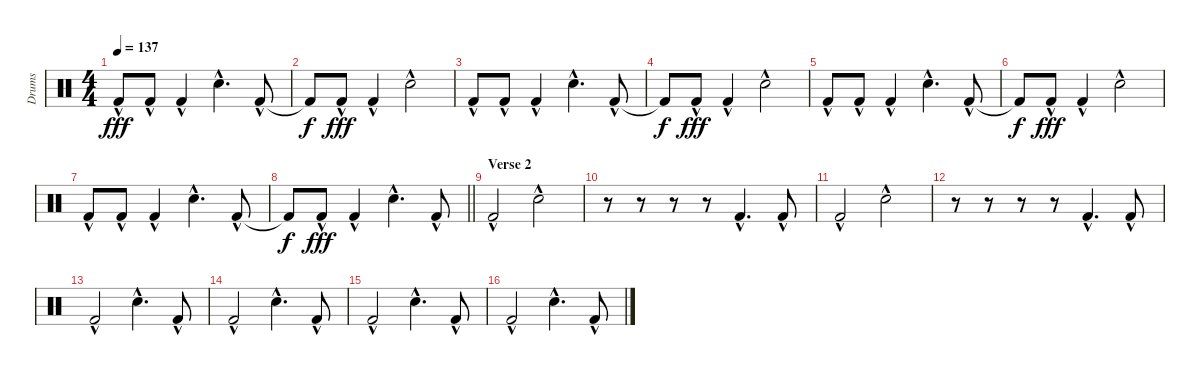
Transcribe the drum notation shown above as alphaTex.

\track ("Drums" "Drums") {instrument percussion}
\staff {score}
\articulation defaults
\ts (4 4)
\tempo 137
\clef neutral
\ks c "Kick (hit) 2"{hac}.8{dy fff} "Kick (hit) 2"{hac}.8 "Kick (hit) 2"{hac}.4 "Snare (hit) 2"{hac}.4{d} "Kick (hit) 2"{hac}.8
|
"Kick (hit) 2"{t}.8{dy f} "Kick (hit) 2"{hac}.8{dy fff} "Kick (hit) 2"{hac}.4 "Snare (hit) 2"{hac}.2 |
"Kick (hit) 2"{hac}.8 "Kick (hit) 2"{hac}.8 "Kick (hit) 2"{hac}.4 "Snare (hit) 2"{hac}.4{d} "Kick (hit) 2"{hac}.8 |
"Kick (hit) 2"{t}.8{dy f} "Kick (hit) 2"{hac}.8{dy fff} "Kick (hit) 2"{hac}.4 "Snare (hit) 2"{hac}.2 |
"Kick (hit) 2"{hac}.8 "Kick (hit) 2"{hac}.8 "Kick (hit) 2"{hac}.4 "Snare (hit) 2"{hac}.4{d} "Kick (hit) 2"{hac}.8 |
"Kick (hit) 2"{t}.8{dy f} "Kick (hit) 2"{hac}.8{dy fff} "Kick (hit) 2"{hac}.4 "Snare (hit) 2"{hac}.2 |
"Kick (hit) 2"{hac}.8 "Kick (hit) 2"{hac}.8 "Kick (hit) 2"{hac}.4 "Snare (hit) 2"{hac}.4{d} "Kick (hit) 2"{hac}.8 |
\barLineRight lightlight "Kick (hit) 2"{t}.8{dy f} "Kick (hit) 2"{hac}.8{dy fff} "Kick (hit) 2"{hac}.4 "Snare (hit) 2"{hac}.4{d} "Kick (hit) 2"{hac}.8
|
\section ("" "Verse 2")
"Kick (hit) 2"{hac}.2 "Snare (hit) 2"{hac}.2 |
r.8 r.8 r.8 r.8 "Kick (hit) 2"{hac}.4{d} "Kick (hit) 2"{hac}.8 |
"Kick (hit) 2"{hac}.2 "Snare (hit) 2"{hac}.2 |
r.8 r.8 r.8 r.8 "Kick (hit) 2"{hac}.4{d} "Kick (hit) 2"{hac}.8 |
"Kick (hit) 2"{hac}.2 "Snare (hit) 2"{hac}.4{d} "Kick (hit) 2"{hac}.8 |
"Kick (hit) 2"{hac}.2 "Snare (hit) 2"{hac}.4{d} "Kick (hit) 2"{hac}.8 |
"Kick (hit) 2"{hac}.2 "Snare (hit) 2"{hac}.4{d} "Kick (hit) 2"{hac}.8 |
"Kick (hit) 2"{hac}.2 "Snare (hit) 2"{hac}.4{d} "Kick (hit) 2"{hac}.8
